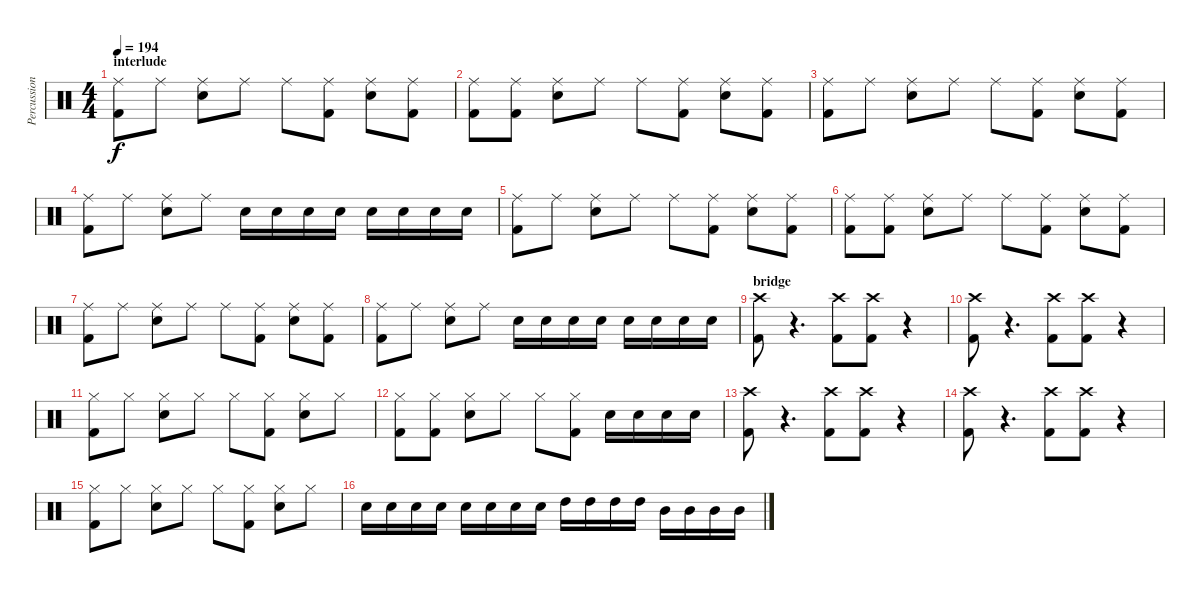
\track ("Percussion" "Percussion") {instrument percussion}
\staff {score}
\articulation defaults
\ts (4 4)
\section ("" "interlude")
\tempo 194
\clef neutral
\ks c
("Ride (middle)" "Kick (hit) 2").8{dy f} "Ride (middle)".8 ("Ride (middle)" "Snare (hit) 2").8 "Ride (middle)".8 "Ride (middle)".8 ("Ride (middle)" "Kick (hit) 2").8 ("Ride (middle)" "Snare (hit) 2").8 ("Ride (middle)" "Kick (hit) 2").8 |
("Ride (middle)" "Kick (hit) 2").8 ("Ride (middle)" "Kick (hit) 2").8 ("Ride (middle)" "Snare (hit) 2").8 "Ride (middle)".8 "Ride (middle)".8 ("Ride (middle)" "Kick (hit) 2").8 ("Ride (middle)" "Snare (hit) 2").8 ("Ride (middle)" "Kick (hit) 2").8 |
("Ride (middle)" "Kick (hit) 2").8 "Ride (middle)".8 ("Ride (middle)" "Snare (hit) 2").8 "Ride (middle)".8 "Ride (middle)".8 ("Ride (middle)" "Kick (hit) 2").8 ("Ride (middle)" "Snare (hit) 2").8 ("Ride (middle)" "Kick (hit) 2").8 |
("Ride (middle)" "Kick (hit) 2").8 "Ride (middle)".8 ("Ride (middle)" "Snare (hit) 2").8 "Ride (middle)".8 "Snare (hit) 2".16 "Snare (hit) 2".16 "Snare (hit) 2".16 "Snare (hit) 2".16 "Snare (hit) 2".16 "Snare (hit) 2".16 "Snare (hit) 2".16 "Snare (hit) 2".16 |
("Ride (middle)" "Kick (hit) 2").8 "Ride (middle)".8 ("Ride (middle)" "Snare (hit) 2").8 "Ride (middle)".8 "Ride (middle)".8 ("Ride (middle)" "Kick (hit) 2").8 ("Ride (middle)" "Snare (hit) 2").8 ("Ride (middle)" "Kick (hit) 2").8 |
("Ride (middle)" "Kick (hit) 2").8 ("Ride (middle)" "Kick (hit) 2").8 ("Ride (middle)" "Snare (hit) 2").8 "Ride (middle)".8 "Ride (middle)".8 ("Ride (middle)" "Kick (hit) 2").8 ("Ride (middle)" "Snare (hit) 2").8 ("Ride (middle)" "Kick (hit) 2").8 |
("Ride (middle)" "Kick (hit) 2").8 "Ride (middle)".8 ("Ride (middle)" "Snare (hit) 2").8 "Ride (middle)".8 "Ride (middle)".8 ("Ride (middle)" "Kick (hit) 2").8 ("Ride (middle)" "Snare (hit) 2").8 ("Ride (middle)" "Kick (hit) 2").8 |
("Ride (middle)" "Kick (hit) 2").8 "Ride (middle)".8 ("Ride (middle)" "Snare (hit) 2").8 "Ride (middle)".8 "Snare (hit) 2".16 "Snare (hit) 2".16 "Snare (hit) 2".16 "Snare (hit) 2".16 "Snare (hit) 2".16 "Snare (hit) 2".16 "Snare (hit) 2".16 "Snare (hit) 2".16 |
\section ("" "bridge")
("Crash high (hit)" "Kick (hit) 2").8 r.4{d} ("Crash high (hit)" "Kick (hit) 2").8 ("Crash high (hit)" "Kick (hit) 2").8 r.4 |
("Crash high (hit)" "Kick (hit) 2").8 r.4{d} ("Crash high (hit)" "Kick (hit) 2").8 ("Crash high (hit)" "Kick (hit) 2").8 r.4 |
("Hi-Hat (closed)" "Kick (hit) 2").8 "Hi-Hat (closed)".8 ("Hi-Hat (closed)" "Snare (hit) 2").8 "Hi-Hat (closed)".8 "Hi-Hat (closed)".8 ("Hi-Hat (closed)" "Kick (hit) 2").8 ("Hi-Hat (closed)" "Snare (hit) 2").8 "Hi-Hat (closed)".8 |
("Hi-Hat (closed)" "Kick (hit) 2").8 ("Hi-Hat (closed)" "Kick (hit) 2").8 ("Hi-Hat (closed)" "Snare (hit) 2").8 "Hi-Hat (closed)".8 "Hi-Hat (closed)".8 ("Hi-Hat (closed)" "Kick (hit) 2").8 "Snare (hit) 2".16 "Snare (hit) 2".16 "Snare (hit) 2".16 "Snare (hit) 2".16 |
("Crash high (hit)" "Kick (hit) 2").8 r.4{d} ("Crash high (hit)" "Kick (hit) 2").8 ("Crash high (hit)" "Kick (hit) 2").8 r.4 |
("Crash high (hit)" "Kick (hit) 2").8 r.4{d} ("Crash high (hit)" "Kick (hit) 2").8 ("Crash high (hit)" "Kick (hit) 2").8 r.4 |
("Hi-Hat (closed)" "Kick (hit) 2").8 "Hi-Hat (closed)".8 ("Hi-Hat (closed)" "Snare (hit) 2").8 "Hi-Hat (closed)".8 "Hi-Hat (closed)".8 ("Hi-Hat (closed)" "Kick (hit) 2").8 ("Hi-Hat (closed)" "Snare (hit) 2").8 "Hi-Hat (closed)".8 |
"Snare (hit) 2".16 "Snare (hit) 2".16 "Snare (hit) 2".16 "Snare (hit) 2".16 "Snare (hit) 2".16 "Snare (hit) 2".16 "Snare (hit) 2".16 "Snare (hit) 2".16 "High Tom (hit)".16 "High Tom (hit)".16 "High Tom (hit)".16 "High Tom (hit)".16 "Mid Tom (hit)".16 "Mid Tom (hit)".16 "Mid Tom (hit)".16 "Mid Tom (hit)".16
